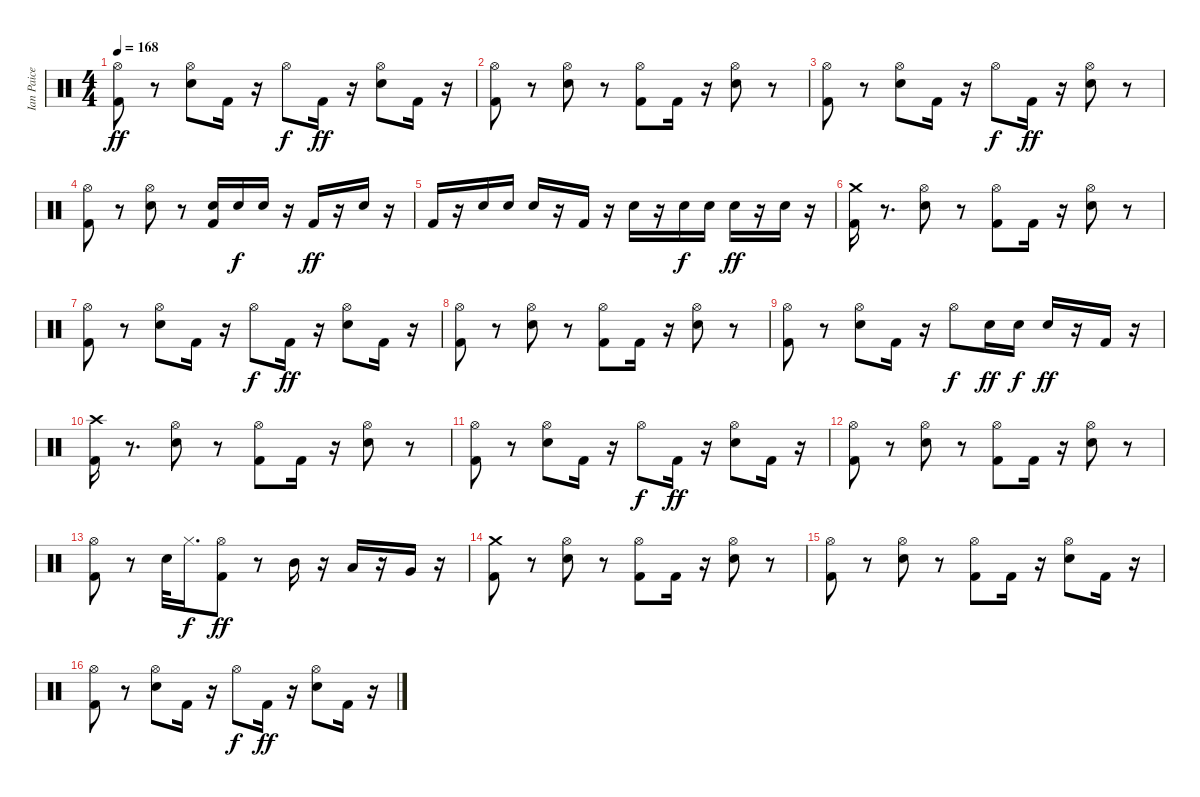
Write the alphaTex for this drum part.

\track ("Ian Paice" "Ian Paice") {instrument percussion}
\staff {score}
\articulation defaults
\ts (4 4)
\tempo 168
\clef neutral
\ks c
("Kick (hit) 2" "Hi-Hat (open)").8{dy ff} r.8 ("Hi-Hat (open)" "Electric Snare (hit)").8 "Kick (hit) 2".16 r.16 "Hi-Hat (open)".8{dy f} "Kick (hit) 2".16{dy ff} r.16 ("Hi-Hat (open)" "Electric Snare (hit)").8 "Kick (hit) 2".16 r.16 |
("Kick (hit) 2" "Hi-Hat (open)").8 r.8 ("Hi-Hat (open)" "Electric Snare (hit)").8 r.8 ("Kick (hit) 2" "Hi-Hat (open)").8 "Kick (hit) 2".16 r.16 ("Hi-Hat (open)" "Electric Snare (hit)").8 r.8 |
("Kick (hit) 2" "Hi-Hat (open)").8 r.8 ("Hi-Hat (open)" "Electric Snare (hit)").8 "Kick (hit) 2".16 r.16 "Hi-Hat (open)".8{dy f} "Kick (hit) 2".16{dy ff} r.16 ("Hi-Hat (open)" "Electric Snare (hit)").8 r.8 |
("Kick (hit) 2" "Hi-Hat (open)").8 r.8 ("Hi-Hat (open)" "Electric Snare (hit)").8 r.8 ("Kick (hit) 2" "Electric Snare (hit)").16 "Electric Snare (hit)".16{dy f} "Electric Snare (hit)".16 r.16 "Kick (hit) 2".16{dy ff} r.16 "Electric Snare (hit)".16 r.16 |
"Kick (hit) 2".16 r.16 "Electric Snare (hit)".16 "Electric Snare (hit)".16 "Electric Snare (hit)".16 r.16 "Kick (hit) 2".16 r.16 "Electric Snare (hit)".16 r.16 "Electric Snare (hit)".16{dy f} "Electric Snare (hit)".16 "Electric Snare (hit)".16{dy ff} r.16 "Electric Snare (hit)".16 r.16 |
("Kick (hit) 2" "Crash medium (hit)").16 r.8{d} ("Hi-Hat (open)" "Electric Snare (hit)").8 r.8 ("Kick (hit) 2" "Hi-Hat (open)").8 "Kick (hit) 2".16 r.16 ("Hi-Hat (open)" "Electric Snare (hit)").8 r.8 |
("Kick (hit) 2" "Hi-Hat (open)").8 r.8 ("Hi-Hat (open)" "Electric Snare (hit)").8 "Kick (hit) 2".16 r.16 "Hi-Hat (open)".8{dy f} "Kick (hit) 2".16{dy ff} r.16 ("Hi-Hat (open)" "Electric Snare (hit)").8 "Kick (hit) 2".16 r.16 |
("Kick (hit) 2" "Hi-Hat (open)").8 r.8 ("Hi-Hat (open)" "Electric Snare (hit)").8 r.8 ("Kick (hit) 2" "Hi-Hat (open)").8 "Kick (hit) 2".16 r.16 ("Hi-Hat (open)" "Electric Snare (hit)").8 r.8 |
("Kick (hit) 2" "Hi-Hat (open)").8 r.8 ("Hi-Hat (open)" "Electric Snare (hit)").8 "Kick (hit) 2".16 r.16 "Hi-Hat (open)".8{dy f} "Electric Snare (hit)".16{dy ff} "Electric Snare (hit)".16{dy f} "Electric Snare (hit)".16{dy ff} r.16 "Kick (hit) 2".16 r.16 |
("Kick (hit) 2" "Crash high (hit)").16 r.8{d} ("Hi-Hat (open)" "Electric Snare (hit)").8 r.8 ("Kick (hit) 2" "Hi-Hat (open)").8 "Kick (hit) 2".16 r.16 ("Hi-Hat (open)" "Electric Snare (hit)").8 r.8 |
("Kick (hit) 2" "Hi-Hat (open)").8 r.8 ("Hi-Hat (open)" "Electric Snare (hit)").8 "Kick (hit) 2".16 r.16 "Hi-Hat (open)".8{dy f} "Kick (hit) 2".16{dy ff} r.16 ("Hi-Hat (open)" "Electric Snare (hit)").8 "Kick (hit) 2".16 r.16 |
("Kick (hit) 2" "Hi-Hat (open)").8 r.8 ("Hi-Hat (open)" "Electric Snare (hit)").8 r.8 ("Kick (hit) 2" "Hi-Hat (open)").8 "Kick (hit) 2".16 r.16 ("Hi-Hat (open)" "Electric Snare (hit)").8 r.8 |
("Kick (hit) 2" "Hi-Hat (open)").8 r.8 "Electric Snare (hit)".32 "Hi-Hat (closed)".16{d dy f} ("Kick (hit) 2" "Hi-Hat (open)").8{dy ff} r.8 "Mid Tom (hit)".16 r.16 "Low Tom (hit)".16 r.16 "Very Low Tom (hit)".16 r.16 |
("Crash medium (hit)" "Kick (hit) 2").8 r.8 ("Hi-Hat (open)" "Electric Snare (hit)").8 r.8 ("Kick (hit) 2" "Hi-Hat (open)").8 "Kick (hit) 2".16 r.16 ("Hi-Hat (open)" "Electric Snare (hit)").8 r.8 |
("Kick (hit) 2" "Hi-Hat (open)").8 r.8 ("Hi-Hat (open)" "Electric Snare (hit)").8 r.8 ("Kick (hit) 2" "Hi-Hat (open)").8 "Kick (hit) 2".16 r.16 ("Hi-Hat (open)" "Electric Snare (hit)").8 "Kick (hit) 2".16 r.16 |
("Kick (hit) 2" "Hi-Hat (open)").8 r.8 ("Hi-Hat (open)" "Electric Snare (hit)").8 "Kick (hit) 2".16 r.16 "Hi-Hat (open)".8{dy f} "Kick (hit) 2".16{dy ff} r.16 ("Hi-Hat (open)" "Electric Snare (hit)").8 "Kick (hit) 2".16 r.16
